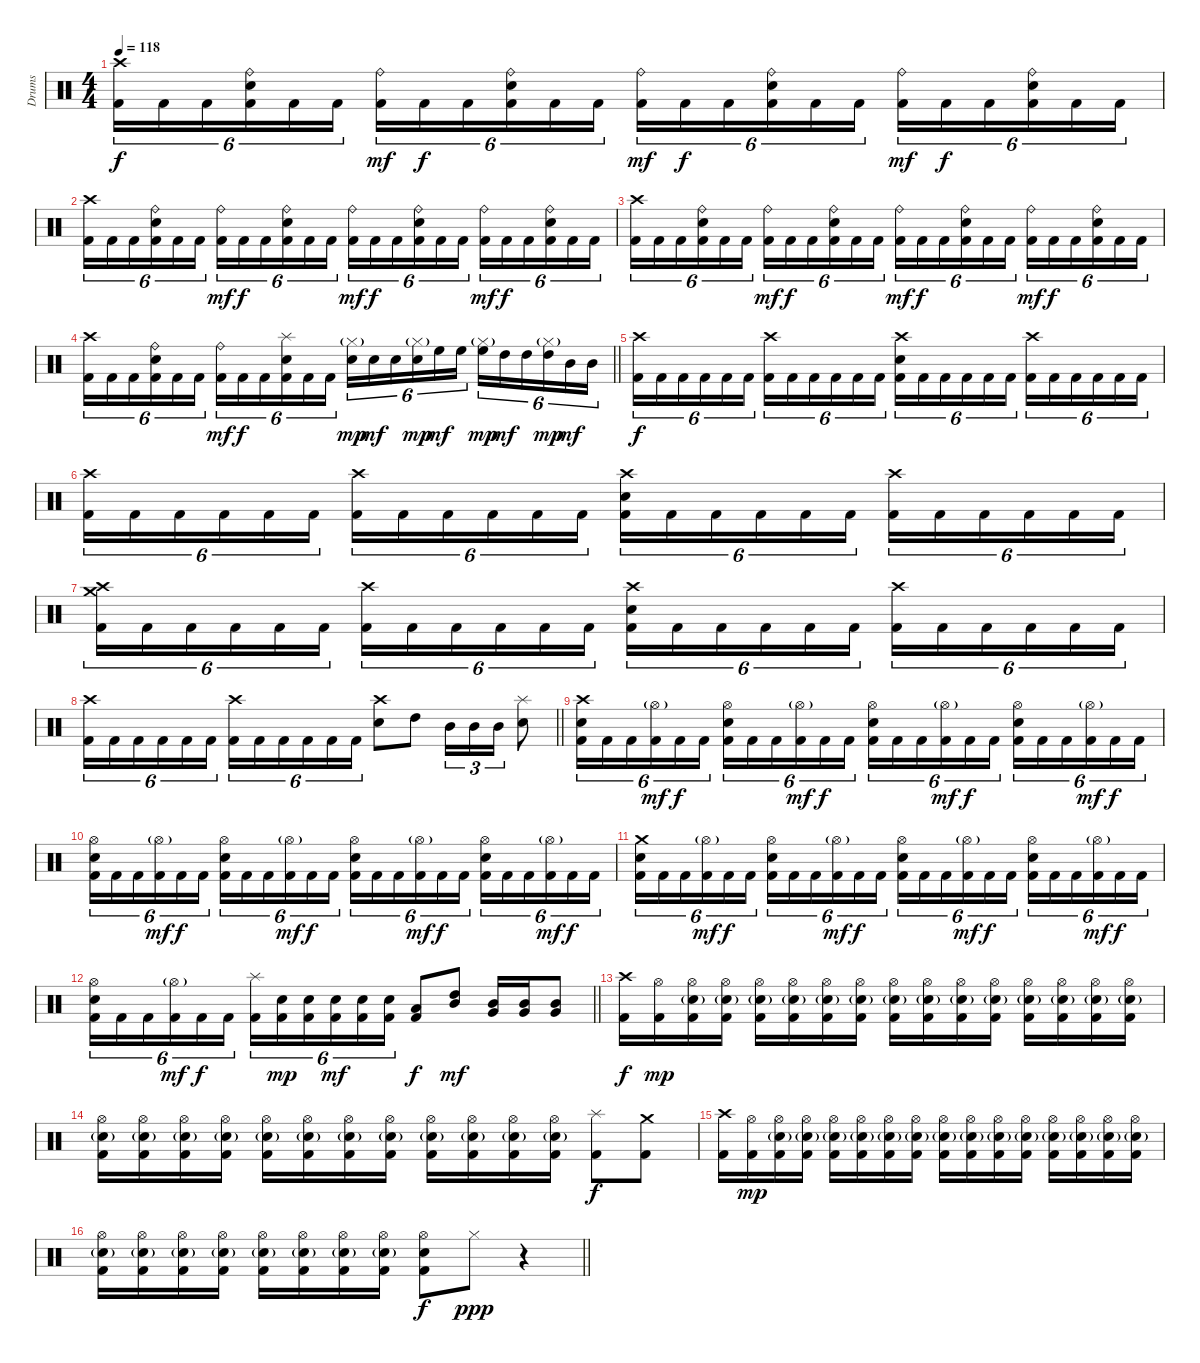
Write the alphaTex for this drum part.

\track ("Drums" "Drums") {instrument percussion}
\staff {score}
\articulation defaults
\ts (4 4)
\tempo 118
\clef neutral
\ks c
("Crash high (hit)" "Kick (hit) 2").16{tu (6 4) dy f} "Kick (hit) 2".16{tu (6 4)} "Kick (hit) 2".16{tu (6 4)} ("Ride (bell)" "Electric Snare (hit)" "Kick (hit) 2").16{tu (6 4)} "Kick (hit) 2".16{tu (6 4)} "Kick (hit) 2".16{tu (6 4)} ("Ride (bell)" "Kick (hit) 2").16{tu (6 4) dy mf} "Kick (hit) 2".16{tu (6 4) dy f} "Kick (hit) 2".16{tu (6 4)} ("Ride (bell)" "Electric Snare (hit)" "Kick (hit) 2").16{tu (6 4)} "Kick (hit) 2".16{tu (6 4)} "Kick (hit) 2".16{tu (6 4)} ("Ride (bell)" "Kick (hit) 2").16{tu (6 4) dy mf} "Kick (hit) 2".16{tu (6 4) dy f} "Kick (hit) 2".16{tu (6 4)} ("Ride (bell)" "Electric Snare (hit)" "Kick (hit) 2").16{tu (6 4)} "Kick (hit) 2".16{tu (6 4)} "Kick (hit) 2".16{tu (6 4)} ("Ride (bell)" "Kick (hit) 2").16{tu (6 4) dy mf} "Kick (hit) 2".16{tu (6 4) dy f} "Kick (hit) 2".16{tu (6 4)} ("Ride (bell)" "Electric Snare (hit)" "Kick (hit) 2").16{tu (6 4)} "Kick (hit) 2".16{tu (6 4)} "Kick (hit) 2".16{tu (6 4)} |
("Crash high (hit)" "Kick (hit) 2").16{tu (6 4)} "Kick (hit) 2".16{tu (6 4)} "Kick (hit) 2".16{tu (6 4)} ("Ride (bell)" "Electric Snare (hit)" "Kick (hit) 2").16{tu (6 4)} "Kick (hit) 2".16{tu (6 4)} "Kick (hit) 2".16{tu (6 4)} ("Ride (bell)" "Kick (hit) 2").16{tu (6 4) dy mf} "Kick (hit) 2".16{tu (6 4) dy f} "Kick (hit) 2".16{tu (6 4)} ("Ride (bell)" "Electric Snare (hit)" "Kick (hit) 2").16{tu (6 4)} "Kick (hit) 2".16{tu (6 4)} "Kick (hit) 2".16{tu (6 4)} ("Ride (bell)" "Kick (hit) 2").16{tu (6 4) dy mf} "Kick (hit) 2".16{tu (6 4) dy f} "Kick (hit) 2".16{tu (6 4)} ("Ride (bell)" "Electric Snare (hit)" "Kick (hit) 2").16{tu (6 4)} "Kick (hit) 2".16{tu (6 4)} "Kick (hit) 2".16{tu (6 4)} ("Ride (bell)" "Kick (hit) 2").16{tu (6 4) dy mf} "Kick (hit) 2".16{tu (6 4) dy f} "Kick (hit) 2".16{tu (6 4)} ("Ride (bell)" "Electric Snare (hit)" "Kick (hit) 2").16{tu (6 4)} "Kick (hit) 2".16{tu (6 4)} "Kick (hit) 2".16{tu (6 4)} |
("Crash high (hit)" "Kick (hit) 2").16{tu (6 4)} "Kick (hit) 2".16{tu (6 4)} "Kick (hit) 2".16{tu (6 4)} ("Ride (bell)" "Electric Snare (hit)" "Kick (hit) 2").16{tu (6 4)} "Kick (hit) 2".16{tu (6 4)} "Kick (hit) 2".16{tu (6 4)} ("Ride (bell)" "Kick (hit) 2").16{tu (6 4) dy mf} "Kick (hit) 2".16{tu (6 4) dy f} "Kick (hit) 2".16{tu (6 4)} ("Ride (bell)" "Electric Snare (hit)" "Kick (hit) 2").16{tu (6 4)} "Kick (hit) 2".16{tu (6 4)} "Kick (hit) 2".16{tu (6 4)} ("Ride (bell)" "Kick (hit) 2").16{tu (6 4) dy mf} "Kick (hit) 2".16{tu (6 4) dy f} "Kick (hit) 2".16{tu (6 4)} ("Ride (bell)" "Electric Snare (hit)" "Kick (hit) 2").16{tu (6 4)} "Kick (hit) 2".16{tu (6 4)} "Kick (hit) 2".16{tu (6 4)} ("Ride (bell)" "Kick (hit) 2").16{tu (6 4) dy mf} "Kick (hit) 2".16{tu (6 4) dy f} "Kick (hit) 2".16{tu (6 4)} ("Ride (bell)" "Electric Snare (hit)" "Kick (hit) 2").16{tu (6 4)} "Kick (hit) 2".16{tu (6 4)} "Kick (hit) 2".16{tu (6 4)} |
\barLineRight lightlight
("Crash high (hit)" "Kick (hit) 2").16{tu (6 4)} "Kick (hit) 2".16{tu (6 4)} "Kick (hit) 2".16{tu (6 4)} ("Ride (bell)" "Electric Snare (hit)" "Kick (hit) 2").16{tu (6 4)} "Kick (hit) 2".16{tu (6 4)} "Kick (hit) 2".16{tu (6 4)} ("Ride (bell)" "Kick (hit) 2").16{tu (6 4) dy mf} "Kick (hit) 2".16{tu (6 4) dy f} "Kick (hit) 2".16{tu (6 4)} ("Splash (hit)" "Electric Snare (hit)" "Kick (hit) 2").16{tu (6 4)} "Kick (hit) 2".16{tu (6 4)} "Kick (hit) 2".16{tu (6 4)} ("Electric Snare (hit)" "Hi-Hat (closed)"{g}).16{tu (6 4) dy mp} "Electric Snare (hit)".16{tu (6 4) dy mf} "Electric Snare (hit)".16{tu (6 4)} ("Electric Snare (hit)" "Hi-Hat (closed)"{g}).16{tu (6 4) dy mp} "High Floor Tom (hit)".16{tu (6 4) dy mf} "High Floor Tom (hit)".16{tu (6 4)} ("High Floor Tom (hit)" "Hi-Hat (closed)"{g}).16{tu (6 4) dy mp} "High Tom (hit)".16{tu (6 4) dy mf} "High Tom (hit)".16{tu (6 4)} ("High Tom (hit)" "Hi-Hat (closed)"{g}).16{tu (6 4) dy mp} "Mid Tom (hit)".16{tu (6 4) dy mf} "Mid Tom (hit)".16{tu (6 4)} |
("Crash high (hit)" "Kick (hit) 2").16{tu (6 4) dy f} "Kick (hit) 2".16{tu (6 4)} "Kick (hit) 2".16{tu (6 4)} "Kick (hit) 2".16{tu (6 4)} "Kick (hit) 2".16{tu (6 4)} "Kick (hit) 2".16{tu (6 4)} ("Crash high (hit)" "Kick (hit) 2").16{tu (6 4)} "Kick (hit) 2".16{tu (6 4)} "Kick (hit) 2".16{tu (6 4)} "Kick (hit) 2".16{tu (6 4)} "Kick (hit) 2".16{tu (6 4)} "Kick (hit) 2".16{tu (6 4)} ("Crash high (hit)" "Electric Snare (hit)" "Kick (hit) 2").16{tu (6 4)} "Kick (hit) 2".16{tu (6 4)} "Kick (hit) 2".16{tu (6 4)} "Kick (hit) 2".16{tu (6 4)} "Kick (hit) 2".16{tu (6 4)} "Kick (hit) 2".16{tu (6 4)} ("Crash high (hit)" "Kick (hit) 2").16{tu (6 4)} "Kick (hit) 2".16{tu (6 4)} "Kick (hit) 2".16{tu (6 4)} "Kick (hit) 2".16{tu (6 4)} "Kick (hit) 2".16{tu (6 4)} "Kick (hit) 2".16{tu (6 4)} |
("Crash high (hit)" "Kick (hit) 2").16{tu (6 4)} "Kick (hit) 2".16{tu (6 4)} "Kick (hit) 2".16{tu (6 4)} "Kick (hit) 2".16{tu (6 4)} "Kick (hit) 2".16{tu (6 4)} "Kick (hit) 2".16{tu (6 4)} ("Crash high (hit)" "Kick (hit) 2").16{tu (6 4)} "Kick (hit) 2".16{tu (6 4)} "Kick (hit) 2".16{tu (6 4)} "Kick (hit) 2".16{tu (6 4)} "Kick (hit) 2".16{tu (6 4)} "Kick (hit) 2".16{tu (6 4)} ("Crash high (hit)" "Electric Snare (hit)" "Kick (hit) 2").16{tu (6 4)} "Kick (hit) 2".16{tu (6 4)} "Kick (hit) 2".16{tu (6 4)} "Kick (hit) 2".16{tu (6 4)} "Kick (hit) 2".16{tu (6 4)} "Kick (hit) 2".16{tu (6 4)} ("Crash high (hit)" "Kick (hit) 2").16{tu (6 4)} "Kick (hit) 2".16{tu (6 4)} "Kick (hit) 2".16{tu (6 4)} "Kick (hit) 2".16{tu (6 4)} "Kick (hit) 2".16{tu (6 4)} "Kick (hit) 2".16{tu (6 4)} |
("Crash high (hit)" "Crash medium (hit)" "Kick (hit) 2").16{tu (6 4)} "Kick (hit) 2".16{tu (6 4)} "Kick (hit) 2".16{tu (6 4)} "Kick (hit) 2".16{tu (6 4)} "Kick (hit) 2".16{tu (6 4)} "Kick (hit) 2".16{tu (6 4)} ("Crash high (hit)" "Kick (hit) 2").16{tu (6 4)} "Kick (hit) 2".16{tu (6 4)} "Kick (hit) 2".16{tu (6 4)} "Kick (hit) 2".16{tu (6 4)} "Kick (hit) 2".16{tu (6 4)} "Kick (hit) 2".16{tu (6 4)} ("Crash high (hit)" "Electric Snare (hit)" "Kick (hit) 2").16{tu (6 4)} "Kick (hit) 2".16{tu (6 4)} "Kick (hit) 2".16{tu (6 4)} "Kick (hit) 2".16{tu (6 4)} "Kick (hit) 2".16{tu (6 4)} "Kick (hit) 2".16{tu (6 4)} ("Crash high (hit)" "Kick (hit) 2").16{tu (6 4)} "Kick (hit) 2".16{tu (6 4)} "Kick (hit) 2".16{tu (6 4)} "Kick (hit) 2".16{tu (6 4)} "Kick (hit) 2".16{tu (6 4)} "Kick (hit) 2".16{tu (6 4)} |
\barLineRight lightlight
("Crash high (hit)" "Kick (hit) 2").16{tu (6 4)} "Kick (hit) 2".16{tu (6 4)} "Kick (hit) 2".16{tu (6 4)} "Kick (hit) 2".16{tu (6 4)} "Kick (hit) 2".16{tu (6 4)} "Kick (hit) 2".16{tu (6 4)} ("Crash high (hit)" "Kick (hit) 2").16{tu (6 4)} "Kick (hit) 2".16{tu (6 4)} "Kick (hit) 2".16{tu (6 4)} "Kick (hit) 2".16{tu (6 4)} "Kick (hit) 2".16{tu (6 4)} "Kick (hit) 2".16{tu (6 4)} ("Crash high (hit)" "Electric Snare (hit)").8 "High Tom (hit)".8 "Mid Tom (hit)".16{tu (3 2)} "Mid Tom (hit)".16{tu (3 2)} "Mid Tom (hit)".16{tu (3 2)} ("Splash (hit)" "Electric Snare (hit)").8 |
("Crash high (hit)" "Electric Snare (hit)" "Kick (hit) 2").16{tu (6 4)} "Kick (hit) 2".16{tu (6 4)} "Kick (hit) 2".16{tu (6 4)} ("Hi-Hat (open)"{g} "Kick (hit) 2").16{tu (6 4) dy mf} "Kick (hit) 2".16{tu (6 4) dy f} "Kick (hit) 2".16{tu (6 4)} ("Hi-Hat (open)" "Electric Snare (hit)" "Kick (hit) 2").16{tu (6 4)} "Kick (hit) 2".16{tu (6 4)} "Kick (hit) 2".16{tu (6 4)} ("Hi-Hat (open)"{g} "Kick (hit) 2").16{tu (6 4) dy mf} "Kick (hit) 2".16{tu (6 4) dy f} "Kick (hit) 2".16{tu (6 4)} ("Hi-Hat (open)" "Electric Snare (hit)" "Kick (hit) 2").16{tu (6 4)} "Kick (hit) 2".16{tu (6 4)} "Kick (hit) 2".16{tu (6 4)} ("Hi-Hat (open)"{g} "Kick (hit) 2").16{tu (6 4) dy mf} "Kick (hit) 2".16{tu (6 4) dy f} "Kick (hit) 2".16{tu (6 4)} ("Hi-Hat (open)" "Electric Snare (hit)" "Kick (hit) 2").16{tu (6 4)} "Kick (hit) 2".16{tu (6 4)} "Kick (hit) 2".16{tu (6 4)} ("Hi-Hat (open)"{g} "Kick (hit) 2").16{tu (6 4) dy mf} "Kick (hit) 2".16{tu (6 4) dy f} "Kick (hit) 2".16{tu (6 4)} |
("Hi-Hat (open)" "Electric Snare (hit)" "Kick (hit) 2").16{tu (6 4)} "Kick (hit) 2".16{tu (6 4)} "Kick (hit) 2".16{tu (6 4)} ("Hi-Hat (open)"{g} "Kick (hit) 2").16{tu (6 4) dy mf} "Kick (hit) 2".16{tu (6 4) dy f} "Kick (hit) 2".16{tu (6 4)} ("Hi-Hat (open)" "Electric Snare (hit)" "Kick (hit) 2").16{tu (6 4)} "Kick (hit) 2".16{tu (6 4)} "Kick (hit) 2".16{tu (6 4)} ("Hi-Hat (open)"{g} "Kick (hit) 2").16{tu (6 4) dy mf} "Kick (hit) 2".16{tu (6 4) dy f} "Kick (hit) 2".16{tu (6 4)} ("Hi-Hat (open)" "Electric Snare (hit)" "Kick (hit) 2").16{tu (6 4)} "Kick (hit) 2".16{tu (6 4)} "Kick (hit) 2".16{tu (6 4)} ("Hi-Hat (open)"{g} "Kick (hit) 2").16{tu (6 4) dy mf} "Kick (hit) 2".16{tu (6 4) dy f} "Kick (hit) 2".16{tu (6 4)} ("Hi-Hat (open)" "Electric Snare (hit)" "Kick (hit) 2").16{tu (6 4)} "Kick (hit) 2".16{tu (6 4)} "Kick (hit) 2".16{tu (6 4)} ("Hi-Hat (open)"{g} "Kick (hit) 2").16{tu (6 4) dy mf} "Kick (hit) 2".16{tu (6 4) dy f} "Kick (hit) 2".16{tu (6 4)} |
("Crash medium (hit)" "Electric Snare (hit)" "Kick (hit) 2").16{tu (6 4)} "Kick (hit) 2".16{tu (6 4)} "Kick (hit) 2".16{tu (6 4)} ("Hi-Hat (open)"{g} "Kick (hit) 2").16{tu (6 4) dy mf} "Kick (hit) 2".16{tu (6 4) dy f} "Kick (hit) 2".16{tu (6 4)} ("Hi-Hat (open)" "Electric Snare (hit)" "Kick (hit) 2").16{tu (6 4)} "Kick (hit) 2".16{tu (6 4)} "Kick (hit) 2".16{tu (6 4)} ("Hi-Hat (open)"{g} "Kick (hit) 2").16{tu (6 4) dy mf} "Kick (hit) 2".16{tu (6 4) dy f} "Kick (hit) 2".16{tu (6 4)} ("Hi-Hat (open)" "Electric Snare (hit)" "Kick (hit) 2").16{tu (6 4)} "Kick (hit) 2".16{tu (6 4)} "Kick (hit) 2".16{tu (6 4)} ("Hi-Hat (open)"{g} "Kick (hit) 2").16{tu (6 4) dy mf} "Kick (hit) 2".16{tu (6 4) dy f} "Kick (hit) 2".16{tu (6 4)} ("Hi-Hat (open)" "Electric Snare (hit)" "Kick (hit) 2").16{tu (6 4)} "Kick (hit) 2".16{tu (6 4)} "Kick (hit) 2".16{tu (6 4)} ("Hi-Hat (open)"{g} "Kick (hit) 2").16{tu (6 4) dy mf} "Kick (hit) 2".16{tu (6 4) dy f} "Kick (hit) 2".16{tu (6 4)} |
\barLineRight lightlight
("Hi-Hat (open)" "Electric Snare (hit)" "Kick (hit) 2").16{tu (6 4)} "Kick (hit) 2".16{tu (6 4)} "Kick (hit) 2".16{tu (6 4)} ("Hi-Hat (open)"{g} "Kick (hit) 2").16{tu (6 4) dy mf} "Kick (hit) 2".16{tu (6 4) dy f} "Kick (hit) 2".16{tu (6 4)} ("Splash (hit)" "Kick (hit) 2").16{tu (6 4)} ("Electric Snare (hit)" "Kick (hit) 2").16{tu (6 4) dy mp} ("Electric Snare (hit)" "Kick (hit) 2").16{tu (6 4)} ("Electric Snare (hit)" "Kick (hit) 2").16{tu (6 4) dy mf} ("Electric Snare (hit)" "Kick (hit) 2").16{tu (6 4)} ("Electric Snare (hit)" "Kick (hit) 2").16{tu (6 4)} ("Low Tom (hit)" "Kick (hit) 2").8{dy f} ("High Tom (hit)" "Mid Tom (hit)").8{dy mf} ("Mid Tom (hit)" "Very Low Tom (hit)").16 ("Mid Tom (hit)" "Very Low Tom (hit)").16 ("Mid Tom (hit)" "Very Low Tom (hit)").8 |
("Crash high (hit)" "Kick (hit) 2").16{dy f} ("Hi-Hat (open)" "Kick (hit) 2").16{dy mp} ("Hi-Hat (open)" "Electric Snare (hit)"{g} "Kick (hit) 2").16 ("Hi-Hat (open)" "Electric Snare (hit)"{g} "Kick (hit) 2").16 ("Hi-Hat (open)" "Electric Snare (hit)"{g} "Kick (hit) 2").16 ("Hi-Hat (open)" "Electric Snare (hit)"{g} "Kick (hit) 2").16 ("Hi-Hat (open)" "Electric Snare (hit)"{g} "Kick (hit) 2").16 ("Hi-Hat (open)" "Electric Snare (hit)"{g} "Kick (hit) 2").16 ("Hi-Hat (open)" "Electric Snare (hit)"{g} "Kick (hit) 2").16 ("Hi-Hat (open)" "Electric Snare (hit)"{g} "Kick (hit) 2").16 ("Hi-Hat (open)" "Electric Snare (hit)"{g} "Kick (hit) 2").16 ("Hi-Hat (open)" "Electric Snare (hit)"{g} "Kick (hit) 2").16 ("Hi-Hat (open)" "Electric Snare (hit)"{g} "Kick (hit) 2").16 ("Hi-Hat (open)" "Electric Snare (hit)"{g} "Kick (hit) 2").16 ("Hi-Hat (open)" "Electric Snare (hit)"{g} "Kick (hit) 2").16 ("Hi-Hat (open)" "Electric Snare (hit)"{g} "Kick (hit) 2").16 |
("Hi-Hat (open)" "Electric Snare (hit)"{g} "Kick (hit) 2").16 ("Hi-Hat (open)" "Electric Snare (hit)"{g} "Kick (hit) 2").16 ("Hi-Hat (open)" "Electric Snare (hit)"{g} "Kick (hit) 2").16 ("Hi-Hat (open)" "Electric Snare (hit)"{g} "Kick (hit) 2").16 ("Hi-Hat (open)" "Electric Snare (hit)"{g} "Kick (hit) 2").16 ("Hi-Hat (open)" "Electric Snare (hit)"{g} "Kick (hit) 2").16 ("Hi-Hat (open)" "Electric Snare (hit)"{g} "Kick (hit) 2").16 ("Hi-Hat (open)" "Electric Snare (hit)"{g} "Kick (hit) 2").16 ("Hi-Hat (open)" "Electric Snare (hit)"{g} "Kick (hit) 2").16 ("Hi-Hat (open)" "Electric Snare (hit)"{g} "Kick (hit) 2").16 ("Hi-Hat (open)" "Electric Snare (hit)"{g} "Kick (hit) 2").16 ("Hi-Hat (open)" "Electric Snare (hit)"{g} "Kick (hit) 2").16 ("Splash (hit)" "Kick (hit) 2").8{dy f} ("Crash medium (hit)" "Kick (hit) 2").8 |
("Crash high (hit)" "Kick (hit) 2").16 ("Hi-Hat (open)" "Kick (hit) 2").16{dy mp} ("Hi-Hat (open)" "Electric Snare (hit)"{g} "Kick (hit) 2").16 ("Hi-Hat (open)" "Electric Snare (hit)"{g} "Kick (hit) 2").16 ("Hi-Hat (open)" "Electric Snare (hit)"{g} "Kick (hit) 2").16 ("Hi-Hat (open)" "Electric Snare (hit)"{g} "Kick (hit) 2").16 ("Hi-Hat (open)" "Electric Snare (hit)"{g} "Kick (hit) 2").16 ("Hi-Hat (open)" "Electric Snare (hit)"{g} "Kick (hit) 2").16 ("Hi-Hat (open)" "Electric Snare (hit)"{g} "Kick (hit) 2").16 ("Hi-Hat (open)" "Electric Snare (hit)"{g} "Kick (hit) 2").16 ("Hi-Hat (open)" "Electric Snare (hit)"{g} "Kick (hit) 2").16 ("Hi-Hat (open)" "Electric Snare (hit)"{g} "Kick (hit) 2").16 ("Hi-Hat (open)" "Electric Snare (hit)"{g} "Kick (hit) 2").16 ("Hi-Hat (open)" "Electric Snare (hit)"{g} "Kick (hit) 2").16 ("Hi-Hat (open)" "Electric Snare (hit)"{g} "Kick (hit) 2").16 ("Hi-Hat (open)" "Electric Snare (hit)"{g} "Kick (hit) 2").16 |
\barLineRight lightlight
("Hi-Hat (open)" "Electric Snare (hit)"{g} "Kick (hit) 2").16 ("Hi-Hat (open)" "Electric Snare (hit)"{g} "Kick (hit) 2").16 ("Hi-Hat (open)" "Electric Snare (hit)"{g} "Kick (hit) 2").16 ("Hi-Hat (open)" "Electric Snare (hit)"{g} "Kick (hit) 2").16 ("Hi-Hat (open)" "Electric Snare (hit)"{g} "Kick (hit) 2").16 ("Hi-Hat (open)" "Electric Snare (hit)"{g} "Kick (hit) 2").16 ("Hi-Hat (open)" "Electric Snare (hit)"{g} "Kick (hit) 2").16 ("Hi-Hat (open)" "Electric Snare (hit)"{g} "Kick (hit) 2").16 ("Hi-Hat (open)" "Electric Snare (hit)" "Kick (hit) 2").8{dy f} "Hi-Hat (closed)".8{dy ppp} r.4
